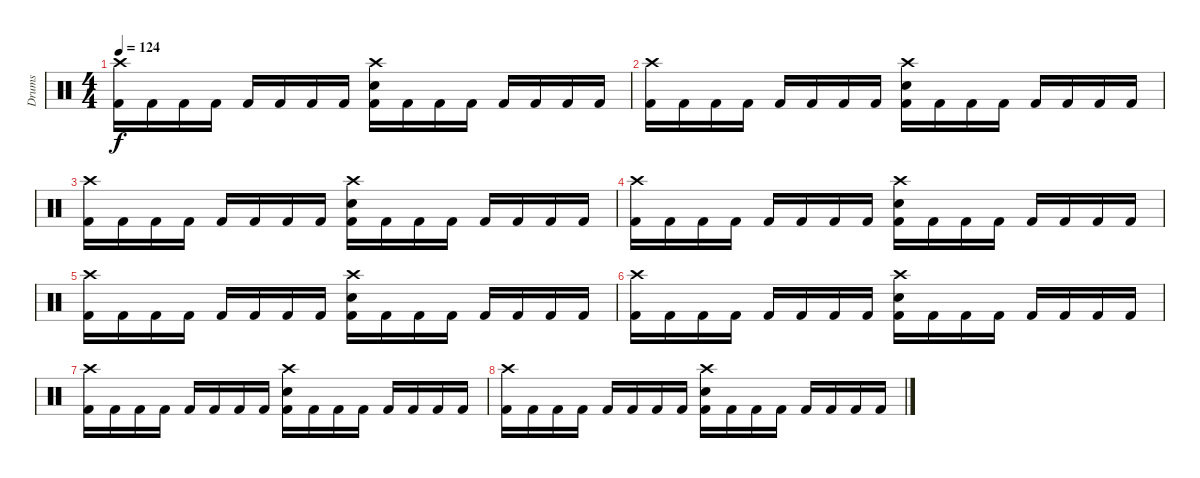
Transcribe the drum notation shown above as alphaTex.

\track ("Drums" "Drums") {instrument percussion}
\staff {score}
\articulation defaults
\ts (4 4)
\tempo 124
\clef neutral
\ks c
("Crash high (hit)" "Kick (hit) 2").16{dy f} "Kick (hit) 2".16 "Kick (hit) 2".16 "Kick (hit) 2".16 "Kick (hit) 2".16 "Kick (hit) 2".16 "Kick (hit) 2".16 "Kick (hit) 2".16 ("Crash high (hit)" "Snare (hit) 2" "Kick (hit) 2").16 "Kick (hit) 2".16 "Kick (hit) 2".16 "Kick (hit) 2".16 "Kick (hit) 2".16 "Kick (hit) 2".16 "Kick (hit) 2".16 "Kick (hit) 2".16 |
("Crash high (hit)" "Kick (hit) 2").16 "Kick (hit) 2".16 "Kick (hit) 2".16 "Kick (hit) 2".16 "Kick (hit) 2".16 "Kick (hit) 2".16 "Kick (hit) 2".16 "Kick (hit) 2".16 ("Crash high (hit)" "Snare (hit) 2" "Kick (hit) 2").16 "Kick (hit) 2".16 "Kick (hit) 2".16 "Kick (hit) 2".16 "Kick (hit) 2".16 "Kick (hit) 2".16 "Kick (hit) 2".16 "Kick (hit) 2".16 |
("Crash high (hit)" "Kick (hit) 2").16 "Kick (hit) 2".16 "Kick (hit) 2".16 "Kick (hit) 2".16 "Kick (hit) 2".16 "Kick (hit) 2".16 "Kick (hit) 2".16 "Kick (hit) 2".16 ("Crash high (hit)" "Snare (hit) 2" "Kick (hit) 2").16 "Kick (hit) 2".16 "Kick (hit) 2".16 "Kick (hit) 2".16 "Kick (hit) 2".16 "Kick (hit) 2".16 "Kick (hit) 2".16 "Kick (hit) 2".16 |
("Crash high (hit)" "Kick (hit) 2").16 "Kick (hit) 2".16 "Kick (hit) 2".16 "Kick (hit) 2".16 "Kick (hit) 2".16 "Kick (hit) 2".16 "Kick (hit) 2".16 "Kick (hit) 2".16 ("Crash high (hit)" "Snare (hit) 2" "Kick (hit) 2").16 "Kick (hit) 2".16 "Kick (hit) 2".16 "Kick (hit) 2".16 "Kick (hit) 2".16 "Kick (hit) 2".16 "Kick (hit) 2".16 "Kick (hit) 2".16 |
("Crash high (hit)" "Kick (hit) 2").16 "Kick (hit) 2".16 "Kick (hit) 2".16 "Kick (hit) 2".16 "Kick (hit) 2".16 "Kick (hit) 2".16 "Kick (hit) 2".16 "Kick (hit) 2".16 ("Crash high (hit)" "Snare (hit) 2" "Kick (hit) 2").16 "Kick (hit) 2".16 "Kick (hit) 2".16 "Kick (hit) 2".16 "Kick (hit) 2".16 "Kick (hit) 2".16 "Kick (hit) 2".16 "Kick (hit) 2".16 |
("Crash high (hit)" "Kick (hit) 2").16 "Kick (hit) 2".16 "Kick (hit) 2".16 "Kick (hit) 2".16 "Kick (hit) 2".16 "Kick (hit) 2".16 "Kick (hit) 2".16 "Kick (hit) 2".16 ("Crash high (hit)" "Snare (hit) 2" "Kick (hit) 2").16 "Kick (hit) 2".16 "Kick (hit) 2".16 "Kick (hit) 2".16 "Kick (hit) 2".16 "Kick (hit) 2".16 "Kick (hit) 2".16 "Kick (hit) 2".16 |
("Crash high (hit)" "Kick (hit) 2").16 "Kick (hit) 2".16 "Kick (hit) 2".16 "Kick (hit) 2".16 "Kick (hit) 2".16 "Kick (hit) 2".16 "Kick (hit) 2".16 "Kick (hit) 2".16 ("Crash high (hit)" "Snare (hit) 2" "Kick (hit) 2").16 "Kick (hit) 2".16 "Kick (hit) 2".16 "Kick (hit) 2".16 "Kick (hit) 2".16 "Kick (hit) 2".16 "Kick (hit) 2".16 "Kick (hit) 2".16 |
("Crash high (hit)" "Kick (hit) 2").16 "Kick (hit) 2".16 "Kick (hit) 2".16 "Kick (hit) 2".16 "Kick (hit) 2".16 "Kick (hit) 2".16 "Kick (hit) 2".16 "Kick (hit) 2".16 ("Crash high (hit)" "Snare (hit) 2" "Kick (hit) 2").16 "Kick (hit) 2".16 "Kick (hit) 2".16 "Kick (hit) 2".16 "Kick (hit) 2".16 "Kick (hit) 2".16 "Kick (hit) 2".16 "Kick (hit) 2".16
